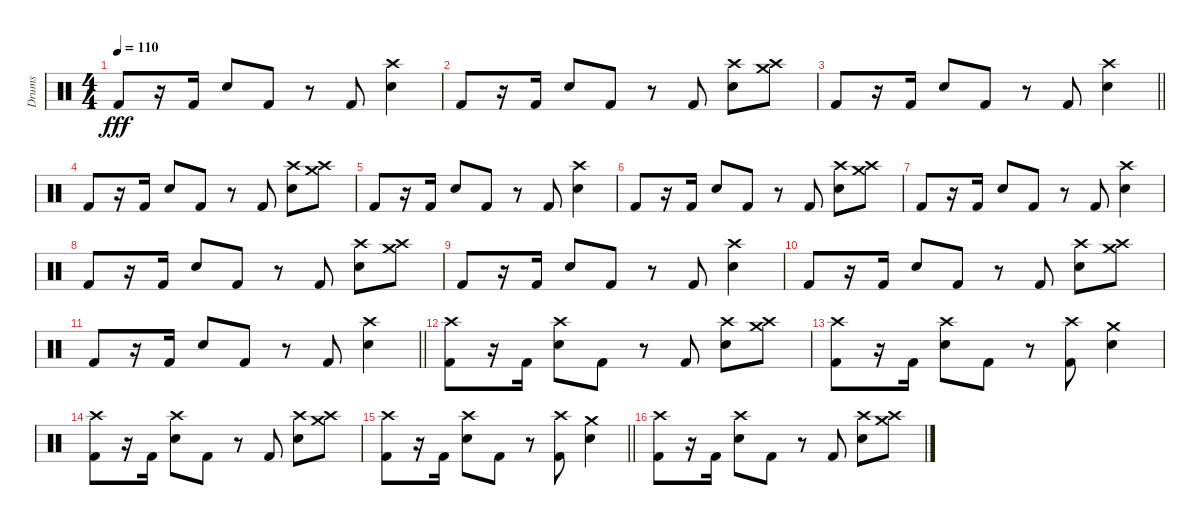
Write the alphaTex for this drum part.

\track ("Drums" "Drums") {instrument percussion}
\staff {score}
\articulation defaults
\ts (4 4)
\tempo 110
\clef neutral
\ks c "Kick (hit) 2".8{dy fff}
r.16 "Kick (hit) 2".16 "Electric Snare (hit)".8 "Kick (hit) 2".8 r.8 "Kick (hit) 2".8 ("Crash high (hit)" "Electric Snare (hit)").4 |
"Kick (hit) 2".8 r.16 "Kick (hit) 2".16 "Electric Snare (hit)".8 "Kick (hit) 2".8 r.8 "Kick (hit) 2".8 ("Crash high (hit)" "Electric Snare (hit)").8 ("Crash high (hit)" "Crash medium (hit)").8 |
\barLineRight lightlight "Kick (hit) 2".8
r.16 "Kick (hit) 2".16 "Electric Snare (hit)".8 "Kick (hit) 2".8 r.8 "Kick (hit) 2".8 ("Crash high (hit)" "Electric Snare (hit)").4 |
"Kick (hit) 2".8 r.16 "Kick (hit) 2".16 "Electric Snare (hit)".8 "Kick (hit) 2".8 r.8 "Kick (hit) 2".8 ("Crash high (hit)" "Electric Snare (hit)").8 ("Crash high (hit)" "Crash medium (hit)").8 |
"Kick (hit) 2".8 r.16 "Kick (hit) 2".16 "Electric Snare (hit)".8 "Kick (hit) 2".8 r.8 "Kick (hit) 2".8 ("Crash high (hit)" "Electric Snare (hit)").4 |
"Kick (hit) 2".8 r.16 "Kick (hit) 2".16 "Electric Snare (hit)".8 "Kick (hit) 2".8 r.8 "Kick (hit) 2".8 ("Crash high (hit)" "Electric Snare (hit)").8 ("Crash high (hit)" "Crash medium (hit)").8 |
"Kick (hit) 2".8 r.16 "Kick (hit) 2".16 "Electric Snare (hit)".8 "Kick (hit) 2".8 r.8 "Kick (hit) 2".8 ("Crash high (hit)" "Electric Snare (hit)").4 |
"Kick (hit) 2".8 r.16 "Kick (hit) 2".16 "Electric Snare (hit)".8 "Kick (hit) 2".8 r.8 "Kick (hit) 2".8 ("Crash high (hit)" "Electric Snare (hit)").8 ("Crash high (hit)" "Crash medium (hit)").8 |
"Kick (hit) 2".8 r.16 "Kick (hit) 2".16 "Electric Snare (hit)".8 "Kick (hit) 2".8 r.8 "Kick (hit) 2".8 ("Crash high (hit)" "Electric Snare (hit)").4 |
"Kick (hit) 2".8 r.16 "Kick (hit) 2".16 "Electric Snare (hit)".8 "Kick (hit) 2".8 r.8 "Kick (hit) 2".8 ("Crash high (hit)" "Electric Snare (hit)").8 ("Crash high (hit)" "Crash medium (hit)").8 |
\barLineRight lightlight "Kick (hit) 2".8
r.16 "Kick (hit) 2".16 "Electric Snare (hit)".8 "Kick (hit) 2".8 r.8 "Kick (hit) 2".8 ("Crash high (hit)" "Electric Snare (hit)").4 |
("Crash high (hit)" "Kick (hit) 2").8 r.16 "Kick (hit) 2".16 ("Crash high (hit)" "Electric Snare (hit)").8 "Kick (hit) 2".8 r.8 "Kick (hit) 2".8 ("Crash high (hit)" "Electric Snare (hit)").8 ("Crash high (hit)" "Crash medium (hit)").8 |
("Crash high (hit)" "Kick (hit) 2").8 r.16 "Kick (hit) 2".16 ("Crash high (hit)" "Electric Snare (hit)").8 "Kick (hit) 2".8 r.8 ("Crash high (hit)" "Kick (hit) 2").8 ("Crash medium (hit)" "Electric Snare (hit)").4 |
("Crash high (hit)" "Kick (hit) 2").8 r.16 "Kick (hit) 2".16 ("Crash high (hit)" "Electric Snare (hit)").8 "Kick (hit) 2".8 r.8 "Kick (hit) 2".8 ("Crash high (hit)" "Electric Snare (hit)").8 ("Crash high (hit)" "Crash medium (hit)").8 |
\barLineRight lightlight
("Crash high (hit)" "Kick (hit) 2").8 r.16 "Kick (hit) 2".16 ("Crash high (hit)" "Electric Snare (hit)").8 "Kick (hit) 2".8 r.8 ("Crash high (hit)" "Kick (hit) 2").8 ("Crash medium (hit)" "Electric Snare (hit)").4 |
("Crash high (hit)" "Kick (hit) 2").8 r.16 "Kick (hit) 2".16 ("Crash high (hit)" "Electric Snare (hit)").8 "Kick (hit) 2".8 r.8 "Kick (hit) 2".8 ("Crash high (hit)" "Electric Snare (hit)").8 ("Crash high (hit)" "Crash medium (hit)").8
